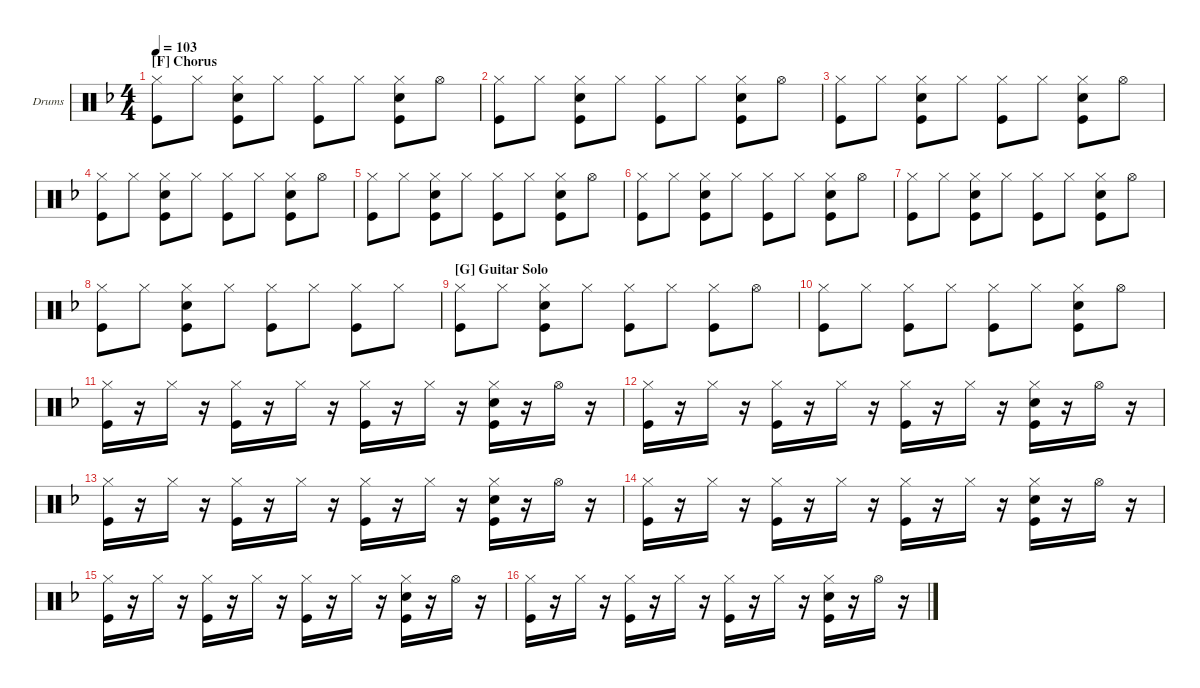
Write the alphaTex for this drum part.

\hideDynamics
\bracketExtendMode groupsimilarinstruments
\firstSystemTrackNameOrientation horizontal
\otherSystemsTrackNameOrientation horizontal
\track ("Drumkit" "Drums") {multiBarRest instrument percussion}
\staff {score}
\articulation defaults
\ts (4 4)
\section ("F" "Chorus")
\tempo 103
\clef neutral
\ks f
("Hi-Hat (closed)" "Kick (hit)").8{dy f} "Hi-Hat (closed)".8 ("Hi-Hat (closed)" "Snare (hit) 2" "Kick (hit)").8 "Hi-Hat (closed)".8 ("Hi-Hat (closed)" "Kick (hit)").8 "Hi-Hat (closed)".8 ("Hi-Hat (closed)" "Snare (hit) 2" "Kick (hit)").8 "Hi-Hat (open)".8 |
("Hi-Hat (closed)" "Kick (hit)").8 "Hi-Hat (closed)".8 ("Hi-Hat (closed)" "Snare (hit) 2" "Kick (hit)").8 "Hi-Hat (closed)".8 ("Hi-Hat (closed)" "Kick (hit)").8 "Hi-Hat (closed)".8 ("Hi-Hat (closed)" "Snare (hit) 2" "Kick (hit)").8 "Hi-Hat (open)".8 |
("Hi-Hat (closed)" "Kick (hit)").8 "Hi-Hat (closed)".8 ("Hi-Hat (closed)" "Snare (hit) 2" "Kick (hit)").8 "Hi-Hat (closed)".8 ("Hi-Hat (closed)" "Kick (hit)").8 "Hi-Hat (closed)".8 ("Hi-Hat (closed)" "Snare (hit) 2" "Kick (hit)").8 "Hi-Hat (open)".8 |
("Hi-Hat (closed)" "Kick (hit)").8 "Hi-Hat (closed)".8 ("Hi-Hat (closed)" "Snare (hit) 2" "Kick (hit)").8 "Hi-Hat (closed)".8 ("Hi-Hat (closed)" "Kick (hit)").8 "Hi-Hat (closed)".8 ("Hi-Hat (closed)" "Snare (hit) 2" "Kick (hit)").8 "Hi-Hat (open)".8 |
("Hi-Hat (closed)" "Kick (hit)").8 "Hi-Hat (closed)".8 ("Hi-Hat (closed)" "Snare (hit) 2" "Kick (hit)").8 "Hi-Hat (closed)".8 ("Hi-Hat (closed)" "Kick (hit)").8 "Hi-Hat (closed)".8 ("Hi-Hat (closed)" "Snare (hit) 2" "Kick (hit)").8 "Hi-Hat (open)".8 |
("Hi-Hat (closed)" "Kick (hit)").8 "Hi-Hat (closed)".8 ("Hi-Hat (closed)" "Snare (hit) 2" "Kick (hit)").8 "Hi-Hat (closed)".8 ("Hi-Hat (closed)" "Kick (hit)").8 "Hi-Hat (closed)".8 ("Hi-Hat (closed)" "Snare (hit) 2" "Kick (hit)").8 "Hi-Hat (open)".8 |
("Hi-Hat (closed)" "Kick (hit)").8 "Hi-Hat (closed)".8 ("Hi-Hat (closed)" "Snare (hit) 2" "Kick (hit)").8 "Hi-Hat (closed)".8 ("Hi-Hat (closed)" "Kick (hit)").8 "Hi-Hat (closed)".8 ("Hi-Hat (closed)" "Snare (hit) 2" "Kick (hit)").8 "Hi-Hat (open)".8 |
("Hi-Hat (closed)" "Kick (hit)").8 "Hi-Hat (closed)".8 ("Hi-Hat (closed)" "Kick (hit)" "Snare (hit) 2").8 "Hi-Hat (closed)".8 ("Hi-Hat (closed)" "Kick (hit)").8 "Hi-Hat (closed)".8 ("Hi-Hat (closed)" "Kick (hit)").8 "Hi-Hat (closed)".8 |
\section ("G" "Guitar Solo")
("Hi-Hat (closed)" "Kick (hit)").8 "Hi-Hat (closed)".8 ("Hi-Hat (closed)" "Kick (hit)" "Snare (hit) 2").8 "Hi-Hat (closed)".8 ("Hi-Hat (closed)" "Kick (hit)").8 "Hi-Hat (closed)".8 ("Hi-Hat (closed)" "Kick (hit)").8 "Hi-Hat (open)".8 |
("Kick (hit)" "Hi-Hat (closed)").8 "Hi-Hat (closed)".8 ("Kick (hit)" "Hi-Hat (closed)").8 "Hi-Hat (closed)".8 ("Kick (hit)" "Hi-Hat (closed)").8 "Hi-Hat (closed)".8 ("Hi-Hat (closed)" "Kick (hit)" "Snare (hit) 2").8 "Hi-Hat (open)".8 |
("Kick (hit)" "Hi-Hat (closed)").16 r.16 "Hi-Hat (closed)".16 r.16 ("Kick (hit)" "Hi-Hat (closed)").16 r.16 "Hi-Hat (closed)".16 r.16 ("Kick (hit)" "Hi-Hat (closed)").16 r.16 "Hi-Hat (closed)".16 r.16 ("Hi-Hat (closed)" "Kick (hit)" "Snare (hit) 2").16 r.16 "Hi-Hat (open)".16 r.16 |
("Kick (hit)" "Hi-Hat (closed)").16 r.16 "Hi-Hat (closed)".16 r.16 ("Kick (hit)" "Hi-Hat (closed)").16 r.16 "Hi-Hat (closed)".16 r.16 ("Kick (hit)" "Hi-Hat (closed)").16 r.16 "Hi-Hat (closed)".16 r.16 ("Hi-Hat (closed)" "Kick (hit)" "Snare (hit) 2").16 r.16 "Hi-Hat (open)".16 r.16 |
("Kick (hit)" "Hi-Hat (closed)").16 r.16 "Hi-Hat (closed)".16 r.16 ("Kick (hit)" "Hi-Hat (closed)").16 r.16 "Hi-Hat (closed)".16 r.16 ("Kick (hit)" "Hi-Hat (closed)").16 r.16 "Hi-Hat (closed)".16 r.16 ("Hi-Hat (closed)" "Kick (hit)" "Snare (hit) 2").16 r.16 "Hi-Hat (open)".16 r.16 |
("Kick (hit)" "Hi-Hat (closed)").16 r.16 "Hi-Hat (closed)".16 r.16 ("Kick (hit)" "Hi-Hat (closed)").16 r.16 "Hi-Hat (closed)".16 r.16 ("Kick (hit)" "Hi-Hat (closed)").16 r.16 "Hi-Hat (closed)".16 r.16 ("Hi-Hat (closed)" "Kick (hit)" "Snare (hit) 2").16 r.16 "Hi-Hat (open)".16 r.16 |
("Kick (hit)" "Hi-Hat (closed)").16 r.16 "Hi-Hat (closed)".16 r.16 ("Kick (hit)" "Hi-Hat (closed)").16 r.16 "Hi-Hat (closed)".16 r.16 ("Kick (hit)" "Hi-Hat (closed)").16 r.16 "Hi-Hat (closed)".16 r.16 ("Hi-Hat (closed)" "Kick (hit)" "Snare (hit) 2").16 r.16 "Hi-Hat (open)".16 r.16 |
("Kick (hit)" "Hi-Hat (closed)").16 r.16 "Hi-Hat (closed)".16 r.16 ("Kick (hit)" "Hi-Hat (closed)").16 r.16 "Hi-Hat (closed)".16 r.16 ("Kick (hit)" "Hi-Hat (closed)").16 r.16 "Hi-Hat (closed)".16 r.16 ("Hi-Hat (closed)" "Kick (hit)" "Snare (hit) 2").16 r.16 "Hi-Hat (open)".16 r.16
